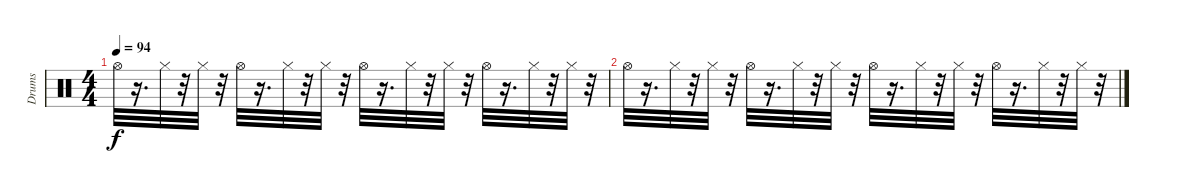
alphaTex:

\track ("Drums" "Drums") {instrument percussion}
\staff {score}
\articulation defaults
\ts (4 4)
\tempo 94
\clef neutral
\ks c "Hi-Hat (open)".32{dy f}
r.16{d} "Hi-Hat (closed)".32 r.32 "Hi-Hat (closed)".32 r.32 "Hi-Hat (open)".32 r.16{d} "Hi-Hat (closed)".32 r.32 "Hi-Hat (closed)".32 r.32 "Hi-Hat (open)".32 r.16{d} "Hi-Hat (closed)".32 r.32 "Hi-Hat (closed)".32 r.32 "Hi-Hat (open)".32 r.16{d} "Hi-Hat (closed)".32 r.32 "Hi-Hat (closed)".32 r.32 |
"Hi-Hat (open)".32 r.16{d} "Hi-Hat (closed)".32 r.32 "Hi-Hat (closed)".32 r.32 "Hi-Hat (open)".32 r.16{d} "Hi-Hat (closed)".32 r.32 "Hi-Hat (closed)".32 r.32 "Hi-Hat (open)".32 r.16{d} "Hi-Hat (closed)".32 r.32 "Hi-Hat (closed)".32 r.32 "Hi-Hat (open)".32 r.16{d} "Hi-Hat (closed)".32 r.32 "Hi-Hat (closed)".32 r.32
